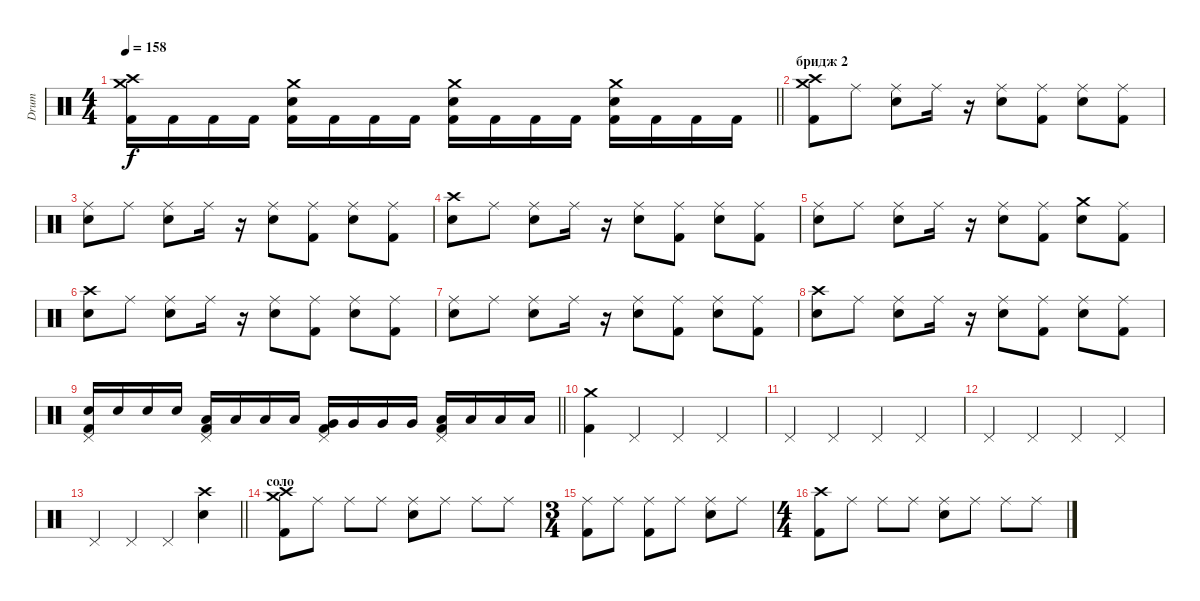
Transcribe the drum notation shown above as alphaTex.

\track ("Drum" "Drum") {instrument percussion}
\staff {score}
\articulation defaults
\ts (4 4)
\tempo 158
\clef neutral
\barLineRight lightlight
\ks c
("Crash high (hit)" "Crash medium (hit)" "Kick (hit) 2").16{dy f} "Kick (hit) 2".16 "Kick (hit) 2".16 "Kick (hit) 2".16 ("Crash medium (hit)" "Snare (hit) 2" "Kick (hit) 2").16 "Kick (hit) 2".16 "Kick (hit) 2".16 "Kick (hit) 2".16 ("Crash medium (hit)" "Snare (hit) 2" "Kick (hit) 2").16 "Kick (hit) 2".16 "Kick (hit) 2".16 "Kick (hit) 2".16 ("Crash medium (hit)" "Snare (hit) 2" "Kick (hit) 2").16 "Kick (hit) 2".16 "Kick (hit) 2".16 "Kick (hit) 2".16 |
\section ("" "бридж 2")
("Crash medium (hit)" "Crash high (hit)" "Kick (hit) 2").8 "Ride (middle)".8 ("Ride (middle)" "Snare (hit) 2").8 "Ride (middle)".16 r.16 ("Ride (middle)" "Snare (hit) 2").8 ("Ride (middle)" "Kick (hit) 2").8 ("Ride (middle)" "Snare (hit) 2").8 ("Ride (middle)" "Kick (hit) 2").8 |
("Ride (middle)" "Snare (hit) 2").8 "Ride (middle)".8 ("Ride (middle)" "Snare (hit) 2").8 "Ride (middle)".16 r.16 ("Ride (middle)" "Snare (hit) 2").8 ("Ride (middle)" "Kick (hit) 2").8 ("Ride (middle)" "Snare (hit) 2").8 ("Ride (middle)" "Kick (hit) 2").8 |
("Crash high (hit)" "Snare (hit) 2").8 "Ride (middle)".8 ("Ride (middle)" "Snare (hit) 2").8 "Ride (middle)".16 r.16 ("Ride (middle)" "Snare (hit) 2").8 ("Ride (middle)" "Kick (hit) 2").8 ("Ride (middle)" "Snare (hit) 2").8 ("Ride (middle)" "Kick (hit) 2").8 |
("Ride (middle)" "Snare (hit) 2").8 "Ride (middle)".8 ("Ride (middle)" "Snare (hit) 2").8 "Ride (middle)".16 r.16 ("Ride (middle)" "Snare (hit) 2").8 ("Ride (middle)" "Kick (hit) 2").8 ("Crash medium (hit)" "Snare (hit) 2").8 ("Ride (middle)" "Kick (hit) 2").8 |
("Crash high (hit)" "Snare (hit) 2").8 "Ride (middle)".8 ("Ride (middle)" "Snare (hit) 2").8 "Ride (middle)".16 r.16 ("Ride (middle)" "Snare (hit) 2").8 ("Ride (middle)" "Kick (hit) 2").8 ("Ride (middle)" "Snare (hit) 2").8 ("Ride (middle)" "Kick (hit) 2").8 |
("Ride (middle)" "Snare (hit) 2").8 "Ride (middle)".8 ("Ride (middle)" "Snare (hit) 2").8 "Ride (middle)".16 r.16 ("Ride (middle)" "Snare (hit) 2").8 ("Ride (middle)" "Kick (hit) 2").8 ("Ride (middle)" "Snare (hit) 2").8 ("Ride (middle)" "Kick (hit) 2").8 |
("Crash high (hit)" "Snare (hit) 2").8 "Ride (middle)".8 ("Ride (middle)" "Snare (hit) 2").8 "Ride (middle)".16 r.16 ("Ride (middle)" "Snare (hit) 2").8 ("Ride (middle)" "Kick (hit) 2").8 ("Ride (middle)" "Snare (hit) 2").8 ("Ride (middle)" "Kick (hit) 2").8 |
\barLineRight lightlight
("Pedal Hi-Hat (hit)" "Kick (hit) 2" "Snare (hit) 2").16 "Snare (hit) 2".16 "Snare (hit) 2".16 "Snare (hit) 2".16 ("Pedal Hi-Hat (hit)" "Kick (hit) 2" "Low Tom (hit)").16 "Low Tom (hit)".16 "Low Tom (hit)".16 "Low Tom (hit)".16 ("Pedal Hi-Hat (hit)" "Kick (hit) 2" "Very Low Tom (hit)").16 "Very Low Tom (hit)".16 "Very Low Tom (hit)".16 "Very Low Tom (hit)".16 ("Pedal Hi-Hat (hit)" "Kick (hit) 2" "Low Floor Tom (hit)").16 "Low Floor Tom (hit)".16 "Low Floor Tom (hit)".16 "Low Floor Tom (hit)".16 |
\section ("" "")
("Crash medium (hit)" "Kick (hit) 2").4 "Pedal Hi-Hat (hit)".4 "Pedal Hi-Hat (hit)".4 "Pedal Hi-Hat (hit)".4 |
"Pedal Hi-Hat (hit)".4 "Pedal Hi-Hat (hit)".4 "Pedal Hi-Hat (hit)".4 "Pedal Hi-Hat (hit)".4 |
"Pedal Hi-Hat (hit)".4 "Pedal Hi-Hat (hit)".4 "Pedal Hi-Hat (hit)".4 "Pedal Hi-Hat (hit)".4 |
\barLineRight lightlight "Pedal Hi-Hat (hit)".4 "Pedal Hi-Hat (hit)".4 "Pedal Hi-Hat (hit)".4
("Crash high (hit)" "Snare (hit) 2").4 |
\section ("" "соло")
("Crash medium (hit)" "Crash high (hit)" "Kick (hit) 2").8 "Ride (middle)".8 "Ride (middle)".8 "Ride (middle)".8 ("Ride (middle)" "Snare (hit) 2").8 "Ride (middle)".8 "Ride (middle)".8 "Ride (middle)".8 |
\ts (3 4)
("Ride (middle)" "Kick (hit) 2").8 "Ride (middle)".8 ("Ride (middle)" "Kick (hit) 2").8 "Ride (middle)".8 ("Ride (middle)" "Snare (hit) 2").8 "Ride (middle)".8 |
\ts (4 4)
("Crash high (hit)" "Kick (hit) 2").8 "Ride (middle)".8 "Ride (middle)".8 "Ride (middle)".8 ("Ride (middle)" "Snare (hit) 2").8 "Ride (middle)".8 "Ride (middle)".8 "Ride (middle)".8
